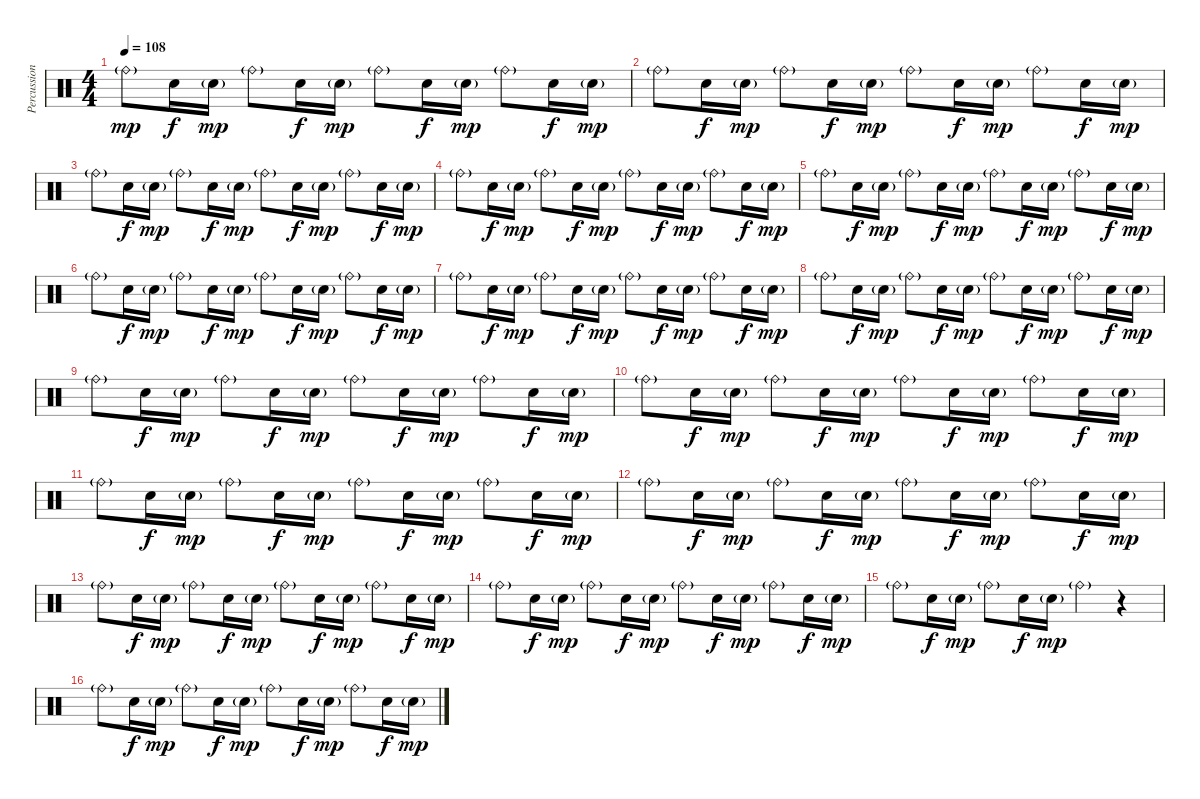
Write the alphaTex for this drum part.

\track ("Percussioni" "Percussion") {instrument percussion}
\staff {score}
\articulation defaults
\ts (4 4)
\tempo 108
\clef neutral
\ks c "Ride (bell)"{g}.8{dy mp} "Snare (hit) 2".16{dy f} "Snare (hit) 2"{g}.16{dy mp} "Ride (bell)"{g}.8 "Snare (hit) 2".16{dy f} "Snare (hit) 2"{g}.16{dy mp} "Ride (bell)"{g}.8 "Snare (hit) 2".16{dy f} "Snare (hit) 2"{g}.16{dy mp} "Ride (bell)"{g}.8 "Snare (hit) 2".16{dy f} "Snare (hit) 2"{g}.16{dy mp}
|
"Ride (bell)"{g}.8 "Snare (hit) 2".16{dy f} "Snare (hit) 2"{g}.16{dy mp} "Ride (bell)"{g}.8 "Snare (hit) 2".16{dy f} "Snare (hit) 2"{g}.16{dy mp} "Ride (bell)"{g}.8 "Snare (hit) 2".16{dy f} "Snare (hit) 2"{g}.16{dy mp} "Ride (bell)"{g}.8 "Snare (hit) 2".16{dy f} "Snare (hit) 2"{g}.16{dy mp} |
"Ride (bell)"{g}.8 "Snare (hit) 2".16{dy f} "Snare (hit) 2"{g}.16{dy mp} "Ride (bell)"{g}.8 "Snare (hit) 2".16{dy f} "Snare (hit) 2"{g}.16{dy mp} "Ride (bell)"{g}.8 "Snare (hit) 2".16{dy f} "Snare (hit) 2"{g}.16{dy mp} "Ride (bell)"{g}.8 "Snare (hit) 2".16{dy f} "Snare (hit) 2"{g}.16{dy mp} |
"Ride (bell)"{g}.8 "Snare (hit) 2".16{dy f} "Snare (hit) 2"{g}.16{dy mp} "Ride (bell)"{g}.8 "Snare (hit) 2".16{dy f} "Snare (hit) 2"{g}.16{dy mp} "Ride (bell)"{g}.8 "Snare (hit) 2".16{dy f} "Snare (hit) 2"{g}.16{dy mp} "Ride (bell)"{g}.8 "Snare (hit) 2".16{dy f} "Snare (hit) 2"{g}.16{dy mp} |
"Ride (bell)"{g}.8 "Snare (hit) 2".16{dy f} "Snare (hit) 2"{g}.16{dy mp} "Ride (bell)"{g}.8 "Snare (hit) 2".16{dy f} "Snare (hit) 2"{g}.16{dy mp} "Ride (bell)"{g}.8 "Snare (hit) 2".16{dy f} "Snare (hit) 2"{g}.16{dy mp} "Ride (bell)"{g}.8 "Snare (hit) 2".16{dy f} "Snare (hit) 2"{g}.16{dy mp} |
"Ride (bell)"{g}.8 "Snare (hit) 2".16{dy f} "Snare (hit) 2"{g}.16{dy mp} "Ride (bell)"{g}.8 "Snare (hit) 2".16{dy f} "Snare (hit) 2"{g}.16{dy mp} "Ride (bell)"{g}.8 "Snare (hit) 2".16{dy f} "Snare (hit) 2"{g}.16{dy mp} "Ride (bell)"{g}.8 "Snare (hit) 2".16{dy f} "Snare (hit) 2"{g}.16{dy mp} |
"Ride (bell)"{g}.8 "Snare (hit) 2".16{dy f} "Snare (hit) 2"{g}.16{dy mp} "Ride (bell)"{g}.8 "Snare (hit) 2".16{dy f} "Snare (hit) 2"{g}.16{dy mp} "Ride (bell)"{g}.8 "Snare (hit) 2".16{dy f} "Snare (hit) 2"{g}.16{dy mp} "Ride (bell)"{g}.8 "Snare (hit) 2".16{dy f} "Snare (hit) 2"{g}.16{dy mp} |
"Ride (bell)"{g}.8 "Snare (hit) 2".16{dy f} "Snare (hit) 2"{g}.16{dy mp} "Ride (bell)"{g}.8 "Snare (hit) 2".16{dy f} "Snare (hit) 2"{g}.16{dy mp} "Ride (bell)"{g}.8 "Snare (hit) 2".16{dy f} "Snare (hit) 2"{g}.16{dy mp} "Ride (bell)"{g}.8 "Snare (hit) 2".16{dy f} "Snare (hit) 2"{g}.16{dy mp} |
"Ride (bell)"{g}.8 "Snare (hit) 2".16{dy f} "Snare (hit) 2"{g}.16{dy mp} "Ride (bell)"{g}.8 "Snare (hit) 2".16{dy f} "Snare (hit) 2"{g}.16{dy mp} "Ride (bell)"{g}.8 "Snare (hit) 2".16{dy f} "Snare (hit) 2"{g}.16{dy mp} "Ride (bell)"{g}.8 "Snare (hit) 2".16{dy f} "Snare (hit) 2"{g}.16{dy mp} |
"Ride (bell)"{g}.8 "Snare (hit) 2".16{dy f} "Snare (hit) 2"{g}.16{dy mp} "Ride (bell)"{g}.8 "Snare (hit) 2".16{dy f} "Snare (hit) 2"{g}.16{dy mp} "Ride (bell)"{g}.8 "Snare (hit) 2".16{dy f} "Snare (hit) 2"{g}.16{dy mp} "Ride (bell)"{g}.8 "Snare (hit) 2".16{dy f} "Snare (hit) 2"{g}.16{dy mp} |
"Ride (bell)"{g}.8 "Snare (hit) 2".16{dy f} "Snare (hit) 2"{g}.16{dy mp} "Ride (bell)"{g}.8 "Snare (hit) 2".16{dy f} "Snare (hit) 2"{g}.16{dy mp} "Ride (bell)"{g}.8 "Snare (hit) 2".16{dy f} "Snare (hit) 2"{g}.16{dy mp} "Ride (bell)"{g}.8 "Snare (hit) 2".16{dy f} "Snare (hit) 2"{g}.16{dy mp} |
"Ride (bell)"{g}.8 "Snare (hit) 2".16{dy f} "Snare (hit) 2"{g}.16{dy mp} "Ride (bell)"{g}.8 "Snare (hit) 2".16{dy f} "Snare (hit) 2"{g}.16{dy mp} "Ride (bell)"{g}.8 "Snare (hit) 2".16{dy f} "Snare (hit) 2"{g}.16{dy mp} "Ride (bell)"{g}.8 "Snare (hit) 2".16{dy f} "Snare (hit) 2"{g}.16{dy mp} |
"Ride (bell)"{g}.8 "Snare (hit) 2".16{dy f} "Snare (hit) 2"{g}.16{dy mp} "Ride (bell)"{g}.8 "Snare (hit) 2".16{dy f} "Snare (hit) 2"{g}.16{dy mp} "Ride (bell)"{g}.8 "Snare (hit) 2".16{dy f} "Snare (hit) 2"{g}.16{dy mp} "Ride (bell)"{g}.8 "Snare (hit) 2".16{dy f} "Snare (hit) 2"{g}.16{dy mp} |
"Ride (bell)"{g}.8 "Snare (hit) 2".16{dy f} "Snare (hit) 2"{g}.16{dy mp} "Ride (bell)"{g}.8 "Snare (hit) 2".16{dy f} "Snare (hit) 2"{g}.16{dy mp} "Ride (bell)"{g}.8 "Snare (hit) 2".16{dy f} "Snare (hit) 2"{g}.16{dy mp} "Ride (bell)"{g}.8 "Snare (hit) 2".16{dy f} "Snare (hit) 2"{g}.16{dy mp} |
"Ride (bell)"{g}.8 "Snare (hit) 2".16{dy f} "Snare (hit) 2"{g}.16{dy mp} "Ride (bell)"{g}.8 "Snare (hit) 2".16{dy f} "Snare (hit) 2"{g}.16{dy mp} "Ride (bell)"{g}.4 r.4 |
"Ride (bell)"{g}.8 "Snare (hit) 2".16{dy f} "Snare (hit) 2"{g}.16{dy mp} "Ride (bell)"{g}.8 "Snare (hit) 2".16{dy f} "Snare (hit) 2"{g}.16{dy mp} "Ride (bell)"{g}.8 "Snare (hit) 2".16{dy f} "Snare (hit) 2"{g}.16{dy mp} "Ride (bell)"{g}.8 "Snare (hit) 2".16{dy f} "Snare (hit) 2"{g}.16{dy mp}
